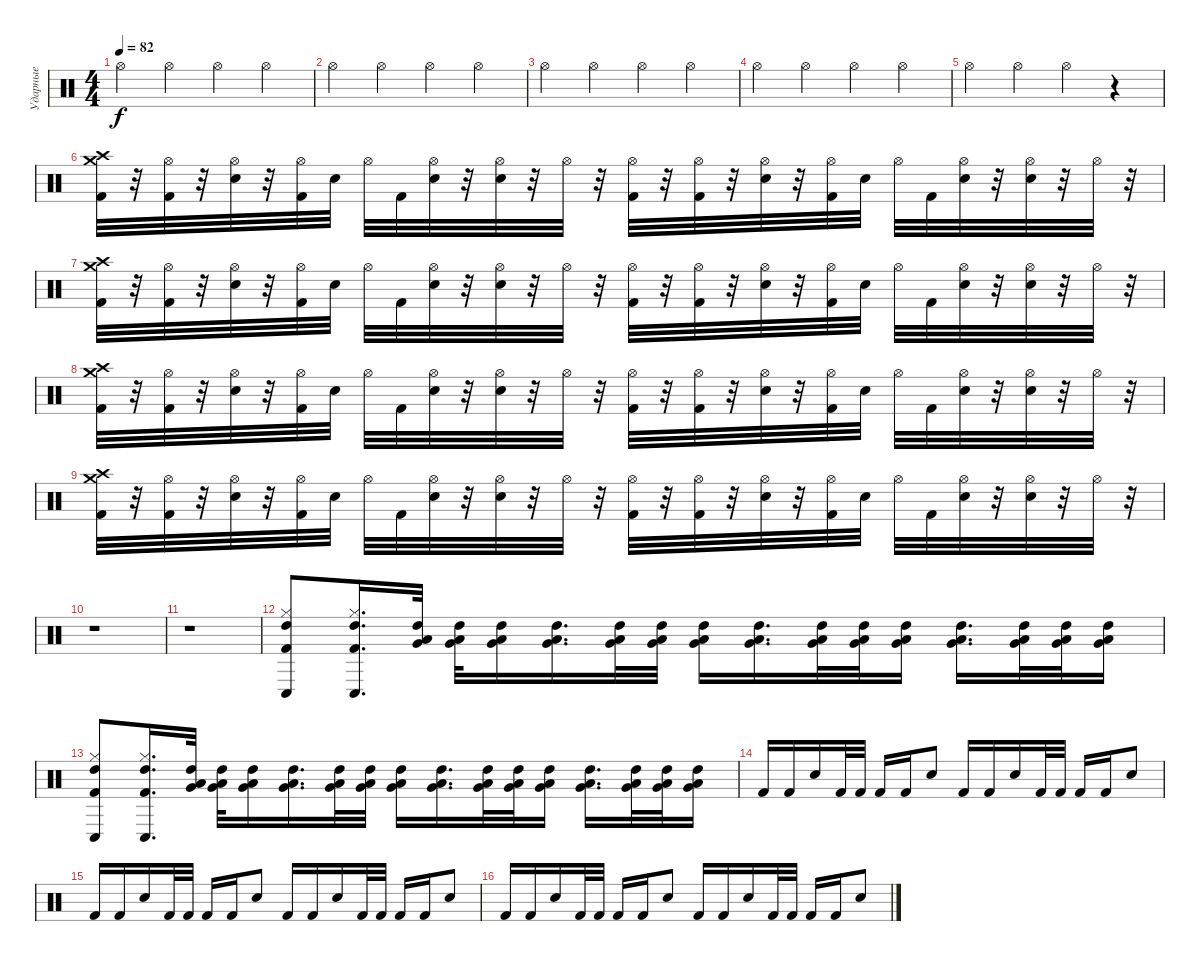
\track ("Ударные" "Ударные") {instrument percussion}
\staff {score}
\articulation defaults
\ts (4 4)
\tempo 82
\clef neutral
\ks c "Hi-Hat (open)".4{dy f} "Hi-Hat (open)".4 "Hi-Hat (open)".4 "Hi-Hat (open)".4
|
"Hi-Hat (open)".4 "Hi-Hat (open)".4 "Hi-Hat (open)".4 "Hi-Hat (open)".4 |
"Hi-Hat (open)".4 "Hi-Hat (open)".4 "Hi-Hat (open)".4 "Hi-Hat (open)".4 |
"Hi-Hat (open)".4 "Hi-Hat (open)".4 "Hi-Hat (open)".4 "Hi-Hat (open)".4 |
"Hi-Hat (open)".4 "Hi-Hat (open)".4 "Hi-Hat (open)".4 r.4 |
("Crash high (hit)" "Crash medium (hit)" "Kick (hit) 2").32 r.32 ("Hi-Hat (open)" "Kick (hit) 2").32 r.32 ("Hi-Hat (open)" "Electric Snare (hit)").32 r.32 ("Hi-Hat (open)" "Kick (hit) 2").32 "Electric Snare (hit)".32 "Hi-Hat (open)".32 "Kick (hit) 2".32 ("Hi-Hat (open)" "Electric Snare (hit)").32 r.32 ("Hi-Hat (open)" "Electric Snare (hit)").32 r.32 "Hi-Hat (open)".32 r.32 ("Hi-Hat (open)" "Kick (hit) 2").32 r.32 ("Hi-Hat (open)" "Kick (hit) 2").32 r.32 ("Hi-Hat (open)" "Electric Snare (hit)").32 r.32 ("Hi-Hat (open)" "Kick (hit) 2").32 "Electric Snare (hit)".32 "Hi-Hat (open)".32 "Kick (hit) 2".32 ("Hi-Hat (open)" "Electric Snare (hit)").32 r.32 ("Hi-Hat (open)" "Electric Snare (hit)").32 r.32 "Hi-Hat (open)".32 r.32 |
("Crash high (hit)" "Crash medium (hit)" "Kick (hit) 2").32 r.32 ("Hi-Hat (open)" "Kick (hit) 2").32 r.32 ("Hi-Hat (open)" "Electric Snare (hit)").32 r.32 ("Hi-Hat (open)" "Kick (hit) 2").32 "Electric Snare (hit)".32 "Hi-Hat (open)".32 "Kick (hit) 2".32 ("Hi-Hat (open)" "Electric Snare (hit)").32 r.32 ("Hi-Hat (open)" "Electric Snare (hit)").32 r.32 "Hi-Hat (open)".32 r.32 ("Hi-Hat (open)" "Kick (hit) 2").32 r.32 ("Hi-Hat (open)" "Kick (hit) 2").32 r.32 ("Hi-Hat (open)" "Electric Snare (hit)").32 r.32 ("Hi-Hat (open)" "Kick (hit) 2").32 "Electric Snare (hit)".32 "Hi-Hat (open)".32 "Kick (hit) 2".32 ("Hi-Hat (open)" "Electric Snare (hit)").32 r.32 ("Hi-Hat (open)" "Electric Snare (hit)").32 r.32 "Hi-Hat (open)".32 r.32 |
("Crash high (hit)" "Crash medium (hit)" "Kick (hit) 2").32 r.32 ("Hi-Hat (open)" "Kick (hit) 2").32 r.32 ("Hi-Hat (open)" "Electric Snare (hit)").32 r.32 ("Hi-Hat (open)" "Kick (hit) 2").32 "Electric Snare (hit)".32 "Hi-Hat (open)".32 "Kick (hit) 2".32 ("Hi-Hat (open)" "Electric Snare (hit)").32 r.32 ("Hi-Hat (open)" "Electric Snare (hit)").32 r.32 "Hi-Hat (open)".32 r.32 ("Hi-Hat (open)" "Kick (hit) 2").32 r.32 ("Hi-Hat (open)" "Kick (hit) 2").32 r.32 ("Hi-Hat (open)" "Electric Snare (hit)").32 r.32 ("Hi-Hat (open)" "Kick (hit) 2").32 "Electric Snare (hit)".32 "Hi-Hat (open)".32 "Kick (hit) 2".32 ("Hi-Hat (open)" "Electric Snare (hit)").32 r.32 ("Hi-Hat (open)" "Electric Snare (hit)").32 r.32 "Hi-Hat (open)".32 r.32 |
("Crash high (hit)" "Crash medium (hit)" "Kick (hit) 2").32 r.32 ("Hi-Hat (open)" "Kick (hit) 2").32 r.32 ("Hi-Hat (open)" "Electric Snare (hit)").32 r.32 ("Hi-Hat (open)" "Kick (hit) 2").32 "Electric Snare (hit)".32 "Hi-Hat (open)".32 "Kick (hit) 2".32 ("Hi-Hat (open)" "Electric Snare (hit)").32 r.32 ("Hi-Hat (open)" "Electric Snare (hit)").32 r.32 "Hi-Hat (open)".32 r.32 ("Hi-Hat (open)" "Kick (hit) 2").32 r.32 ("Hi-Hat (open)" "Kick (hit) 2").32 r.32 ("Hi-Hat (open)" "Electric Snare (hit)").32 r.32 ("Hi-Hat (open)" "Kick (hit) 2").32 "Electric Snare (hit)".32 "Hi-Hat (open)".32 "Kick (hit) 2".32 ("Hi-Hat (open)" "Electric Snare (hit)").32 r.32 ("Hi-Hat (open)" "Electric Snare (hit)").32 r.32 "Hi-Hat (open)".32 r.32 |
r.1 |
r.1{volume 0} |
("Hi-Hat (closed)" "High Tom (hit)" "Conga low (hit)" "Kick (hit) 2").8{volume 12} ("Hi-Hat (closed)" "High Tom (hit)" "Conga low (hit)" "Kick (hit) 2").16{d} ("Low Tom (hit)" "High Tom (hit)" "Very Low Tom (hit)").32 ("Low Tom (hit)" "High Tom (hit)" "Very Low Tom (hit)").32 ("Low Tom (hit)" "High Tom (hit)" "Very Low Tom (hit)").16 ("Low Tom (hit)" "High Tom (hit)" "Very Low Tom (hit)").16{d} ("Low Tom (hit)" "High Tom (hit)" "Very Low Tom (hit)").32 ("Low Tom (hit)" "High Tom (hit)" "Very Low Tom (hit)").32 ("Low Tom (hit)" "High Tom (hit)" "Very Low Tom (hit)").16 ("Low Tom (hit)" "High Tom (hit)" "Very Low Tom (hit)").16{d} ("Low Tom (hit)" "High Tom (hit)" "Very Low Tom (hit)").32 ("Low Tom (hit)" "High Tom (hit)" "Very Low Tom (hit)").32 ("Low Tom (hit)" "High Tom (hit)" "Very Low Tom (hit)").16 ("Low Tom (hit)" "High Tom (hit)" "Very Low Tom (hit)").16{d} ("Low Tom (hit)" "High Tom (hit)" "Very Low Tom (hit)").32 ("Low Tom (hit)" "High Tom (hit)" "Very Low Tom (hit)").32 ("Low Tom (hit)" "High Tom (hit)" "Very Low Tom (hit)").16 |
("Hi-Hat (closed)" "High Tom (hit)" "Conga low (hit)" "Kick (hit) 2").8 ("Hi-Hat (closed)" "High Tom (hit)" "Conga low (hit)" "Kick (hit) 2").16{d} ("Low Tom (hit)" "High Tom (hit)" "Very Low Tom (hit)").32 ("Low Tom (hit)" "High Tom (hit)" "Very Low Tom (hit)").32 ("Low Tom (hit)" "High Tom (hit)" "Very Low Tom (hit)").16 ("Low Tom (hit)" "High Tom (hit)" "Very Low Tom (hit)").16{d} ("Low Tom (hit)" "High Tom (hit)" "Very Low Tom (hit)").32 ("Low Tom (hit)" "High Tom (hit)" "Very Low Tom (hit)").32 ("Low Tom (hit)" "High Tom (hit)" "Very Low Tom (hit)").16 ("Low Tom (hit)" "High Tom (hit)" "Very Low Tom (hit)").16{d} ("Low Tom (hit)" "High Tom (hit)" "Very Low Tom (hit)").32 ("Low Tom (hit)" "High Tom (hit)" "Very Low Tom (hit)").32 ("Low Tom (hit)" "High Tom (hit)" "Very Low Tom (hit)").16 ("Low Tom (hit)" "High Tom (hit)" "Very Low Tom (hit)").16{d} ("Low Tom (hit)" "High Tom (hit)" "Very Low Tom (hit)").32 ("Low Tom (hit)" "High Tom (hit)" "Very Low Tom (hit)").32 ("Low Tom (hit)" "High Tom (hit)" "Very Low Tom (hit)").16 |
"Kick (hit) 2".16 "Kick (hit) 2".16 "Electric Snare (hit)".16 "Kick (hit) 2".32 "Kick (hit) 2".32 "Kick (hit) 2".16 "Kick (hit) 2".16 "Electric Snare (hit)".8 "Kick (hit) 2".16 "Kick (hit) 2".16 "Electric Snare (hit)".16 "Kick (hit) 2".32 "Kick (hit) 2".32 "Kick (hit) 2".16 "Kick (hit) 2".16 "Electric Snare (hit)".8 |
"Kick (hit) 2".16 "Kick (hit) 2".16 "Electric Snare (hit)".16 "Kick (hit) 2".32 "Kick (hit) 2".32 "Kick (hit) 2".16 "Kick (hit) 2".16 "Electric Snare (hit)".8 "Kick (hit) 2".16 "Kick (hit) 2".16 "Electric Snare (hit)".16 "Kick (hit) 2".32 "Kick (hit) 2".32 "Kick (hit) 2".16 "Kick (hit) 2".16 "Electric Snare (hit)".8 |
"Kick (hit) 2".16 "Kick (hit) 2".16 "Electric Snare (hit)".16 "Kick (hit) 2".32 "Kick (hit) 2".32 "Kick (hit) 2".16 "Kick (hit) 2".16 "Electric Snare (hit)".8 "Kick (hit) 2".16 "Kick (hit) 2".16 "Electric Snare (hit)".16 "Kick (hit) 2".32 "Kick (hit) 2".32 "Kick (hit) 2".16 "Kick (hit) 2".16 "Electric Snare (hit)".8
